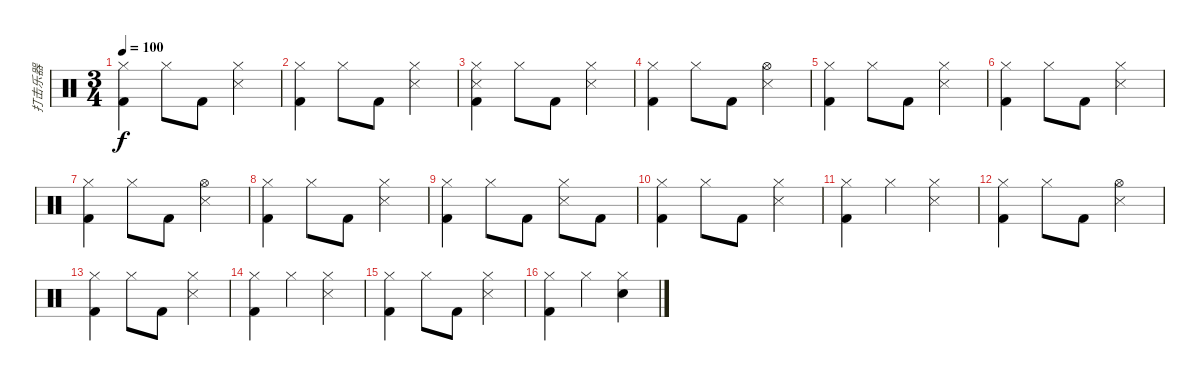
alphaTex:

\track ("打击乐器" "打击乐器") {instrument percussion}
\staff {score}
\articulation defaults
\ts (3 4)
\tempo 100
\clef neutral
\ks c
("Hi-Hat (closed)" "Kick (hit) 2").4{dy f} "Hi-Hat (closed)".8 "Kick (hit) 2".8 ("Hi-Hat (closed)" "Snare (side stick) 3").4 |
("Hi-Hat (closed)" "Kick (hit) 2").4 "Hi-Hat (closed)".8 "Kick (hit) 2".8 ("Hi-Hat (closed)" "Snare (side stick) 3").4 |
("Hi-Hat (closed)" "Snare (side stick) 3" "Kick (hit) 2").4 "Hi-Hat (closed)".8 "Kick (hit) 2".8 ("Hi-Hat (closed)" "Snare (side stick) 3").4 |
("Hi-Hat (closed)" "Kick (hit) 2").4 "Hi-Hat (closed)".8 "Kick (hit) 2".8 ("Hi-Hat (open)" "Snare (side stick) 3").4 |
("Hi-Hat (closed)" "Kick (hit) 2").4 "Hi-Hat (closed)".8 "Kick (hit) 2".8 ("Hi-Hat (closed)" "Snare (side stick) 3").4 |
("Hi-Hat (closed)" "Kick (hit) 2").4 "Hi-Hat (closed)".8 "Kick (hit) 2".8 ("Hi-Hat (closed)" "Snare (side stick) 3").4 |
("Hi-Hat (closed)" "Kick (hit) 2").4 "Hi-Hat (closed)".8 "Kick (hit) 2".8 ("Hi-Hat (open)" "Snare (side stick) 3").4 |
("Hi-Hat (closed)" "Kick (hit) 2").4 "Hi-Hat (closed)".8 "Kick (hit) 2".8 ("Hi-Hat (closed)" "Snare (side stick) 3").4 |
("Hi-Hat (closed)" "Kick (hit) 2").4 "Hi-Hat (closed)".8 "Kick (hit) 2".8 ("Hi-Hat (closed)" "Snare (side stick) 3").8 "Kick (hit) 2".8 |
("Hi-Hat (closed)" "Kick (hit) 2").4 "Hi-Hat (closed)".8 "Kick (hit) 2".8 ("Hi-Hat (closed)" "Snare (side stick) 3").4 |
("Hi-Hat (closed)" "Kick (hit) 2").4 "Hi-Hat (closed)".4 ("Hi-Hat (closed)" "Snare (side stick) 3").4 |
("Hi-Hat (closed)" "Kick (hit) 2").4 "Hi-Hat (closed)".8 "Kick (hit) 2".8 ("Hi-Hat (open)" "Snare (side stick) 3").4 |
("Hi-Hat (closed)" "Kick (hit) 2").4 "Hi-Hat (closed)".8 "Kick (hit) 2".8 ("Hi-Hat (closed)" "Snare (side stick) 3").4 |
("Hi-Hat (closed)" "Kick (hit) 2").4 "Hi-Hat (closed)".4 ("Hi-Hat (closed)" "Snare (side stick) 3").4 |
("Hi-Hat (closed)" "Kick (hit) 2").4 "Hi-Hat (closed)".8 "Kick (hit) 2".8 ("Hi-Hat (closed)" "Snare (side stick) 3").4 |
("Hi-Hat (closed)" "Kick (hit) 2").4 "Hi-Hat (closed)".4 ("Hi-Hat (closed)" "Electric Snare (hit)").4
